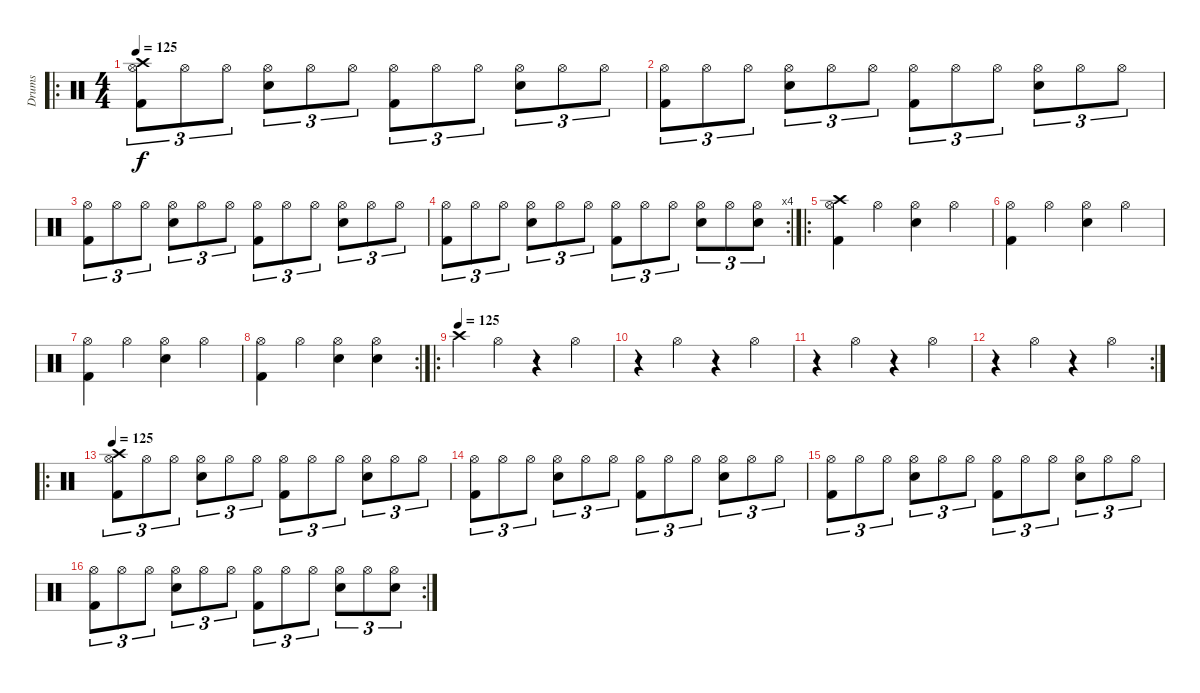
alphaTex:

\track ("Drums" "Drums") {instrument percussion}
\staff {score}
\articulation defaults
\ro
\ts (4 4)
\tempo 125
\clef neutral
\ks c
("Kick (hit) 2" "Hi-Hat (open)" "Crash high (hit)").8{tu (3 2) dy f} "Hi-Hat (open)".8{tu (3 2)} "Hi-Hat (open)".8{tu (3 2)} ("Snare (hit) 2" "Hi-Hat (open)").8{tu (3 2)} "Hi-Hat (open)".8{tu (3 2)} "Hi-Hat (open)".8{tu (3 2)} ("Kick (hit) 2" "Hi-Hat (open)").8{tu (3 2)} "Hi-Hat (open)".8{tu (3 2)} "Hi-Hat (open)".8{tu (3 2)} ("Snare (hit) 2" "Hi-Hat (open)").8{tu (3 2)} "Hi-Hat (open)".8{tu (3 2)} "Hi-Hat (open)".8{tu (3 2)} |
("Kick (hit) 2" "Hi-Hat (open)").8{tu (3 2)} "Hi-Hat (open)".8{tu (3 2)} "Hi-Hat (open)".8{tu (3 2)} ("Snare (hit) 2" "Hi-Hat (open)").8{tu (3 2)} "Hi-Hat (open)".8{tu (3 2)} "Hi-Hat (open)".8{tu (3 2)} ("Kick (hit) 2" "Hi-Hat (open)").8{tu (3 2)} "Hi-Hat (open)".8{tu (3 2)} "Hi-Hat (open)".8{tu (3 2)} ("Snare (hit) 2" "Hi-Hat (open)").8{tu (3 2)} "Hi-Hat (open)".8{tu (3 2)} "Hi-Hat (open)".8{tu (3 2)} |
("Kick (hit) 2" "Hi-Hat (open)").8{tu (3 2)} "Hi-Hat (open)".8{tu (3 2)} "Hi-Hat (open)".8{tu (3 2)} ("Snare (hit) 2" "Hi-Hat (open)").8{tu (3 2)} "Hi-Hat (open)".8{tu (3 2)} "Hi-Hat (open)".8{tu (3 2)} ("Kick (hit) 2" "Hi-Hat (open)").8{tu (3 2)} "Hi-Hat (open)".8{tu (3 2)} "Hi-Hat (open)".8{tu (3 2)} ("Snare (hit) 2" "Hi-Hat (open)").8{tu (3 2)} "Hi-Hat (open)".8{tu (3 2)} "Hi-Hat (open)".8{tu (3 2)} |
\rc 4
("Kick (hit) 2" "Hi-Hat (open)").8{tu (3 2)} "Hi-Hat (open)".8{tu (3 2)} "Hi-Hat (open)".8{tu (3 2)} ("Snare (hit) 2" "Hi-Hat (open)").8{tu (3 2)} "Hi-Hat (open)".8{tu (3 2)} "Hi-Hat (open)".8{tu (3 2)} ("Kick (hit) 2" "Hi-Hat (open)").8{tu (3 2)} "Hi-Hat (open)".8{tu (3 2)} "Hi-Hat (open)".8{tu (3 2)} ("Snare (hit) 2" "Hi-Hat (open)").8{tu (3 2)} "Hi-Hat (open)".8{tu (3 2)} ("Snare (hit) 2" "Hi-Hat (open)").8{tu (3 2)} |
\ro
("Kick (hit) 2" "Hi-Hat (open)" "Crash high (hit)").4 "Hi-Hat (open)".4 ("Snare (hit) 2" "Hi-Hat (open)").4 "Hi-Hat (open)".4 |
("Kick (hit) 2" "Hi-Hat (open)").4 "Hi-Hat (open)".4 ("Snare (hit) 2" "Hi-Hat (open)").4 "Hi-Hat (open)".4 |
("Kick (hit) 2" "Hi-Hat (open)").4 "Hi-Hat (open)".4 ("Snare (hit) 2" "Hi-Hat (open)").4 "Hi-Hat (open)".4 |
\rc 2
("Kick (hit) 2" "Hi-Hat (open)").4 "Hi-Hat (open)".4 ("Snare (hit) 2" "Hi-Hat (open)").4 ("Snare (hit) 2" "Hi-Hat (open)").4 |
\ro
\tempo (125)
"Crash high (hit)".4 "Hi-Hat (open)".4 r.4 "Hi-Hat (open)".4 |
r.4 "Hi-Hat (open)".4 r.4 "Hi-Hat (open)".4 |
r.4 "Hi-Hat (open)".4 r.4 "Hi-Hat (open)".4 |
\rc 2
r.4 "Hi-Hat (open)".4 r.4 "Hi-Hat (open)".4 |
\ro
\tempo 125
("Kick (hit) 2" "Hi-Hat (open)" "Crash high (hit)").8{tu (3 2)} "Hi-Hat (open)".8{tu (3 2)} "Hi-Hat (open)".8{tu (3 2)} ("Snare (hit) 2" "Hi-Hat (open)").8{tu (3 2)} "Hi-Hat (open)".8{tu (3 2)} "Hi-Hat (open)".8{tu (3 2)} ("Kick (hit) 2" "Hi-Hat (open)").8{tu (3 2)} "Hi-Hat (open)".8{tu (3 2)} "Hi-Hat (open)".8{tu (3 2)} ("Snare (hit) 2" "Hi-Hat (open)").8{tu (3 2)} "Hi-Hat (open)".8{tu (3 2)} "Hi-Hat (open)".8{tu (3 2)} |
("Kick (hit) 2" "Hi-Hat (open)").8{tu (3 2)} "Hi-Hat (open)".8{tu (3 2)} "Hi-Hat (open)".8{tu (3 2)} ("Snare (hit) 2" "Hi-Hat (open)").8{tu (3 2)} "Hi-Hat (open)".8{tu (3 2)} "Hi-Hat (open)".8{tu (3 2)} ("Kick (hit) 2" "Hi-Hat (open)").8{tu (3 2)} "Hi-Hat (open)".8{tu (3 2)} "Hi-Hat (open)".8{tu (3 2)} ("Snare (hit) 2" "Hi-Hat (open)").8{tu (3 2)} "Hi-Hat (open)".8{tu (3 2)} "Hi-Hat (open)".8{tu (3 2)} |
("Kick (hit) 2" "Hi-Hat (open)").8{tu (3 2)} "Hi-Hat (open)".8{tu (3 2)} "Hi-Hat (open)".8{tu (3 2)} ("Snare (hit) 2" "Hi-Hat (open)").8{tu (3 2)} "Hi-Hat (open)".8{tu (3 2)} "Hi-Hat (open)".8{tu (3 2)} ("Kick (hit) 2" "Hi-Hat (open)").8{tu (3 2)} "Hi-Hat (open)".8{tu (3 2)} "Hi-Hat (open)".8{tu (3 2)} ("Snare (hit) 2" "Hi-Hat (open)").8{tu (3 2)} "Hi-Hat (open)".8{tu (3 2)} "Hi-Hat (open)".8{tu (3 2)} |
\rc 2
("Kick (hit) 2" "Hi-Hat (open)").8{tu (3 2)} "Hi-Hat (open)".8{tu (3 2)} "Hi-Hat (open)".8{tu (3 2)} ("Snare (hit) 2" "Hi-Hat (open)").8{tu (3 2)} "Hi-Hat (open)".8{tu (3 2)} "Hi-Hat (open)".8{tu (3 2)} ("Kick (hit) 2" "Hi-Hat (open)").8{tu (3 2)} "Hi-Hat (open)".8{tu (3 2)} "Hi-Hat (open)".8{tu (3 2)} ("Snare (hit) 2" "Hi-Hat (open)").8{tu (3 2)} "Hi-Hat (open)".8{tu (3 2)} ("Snare (hit) 2" "Hi-Hat (open)").8{tu (3 2)}
